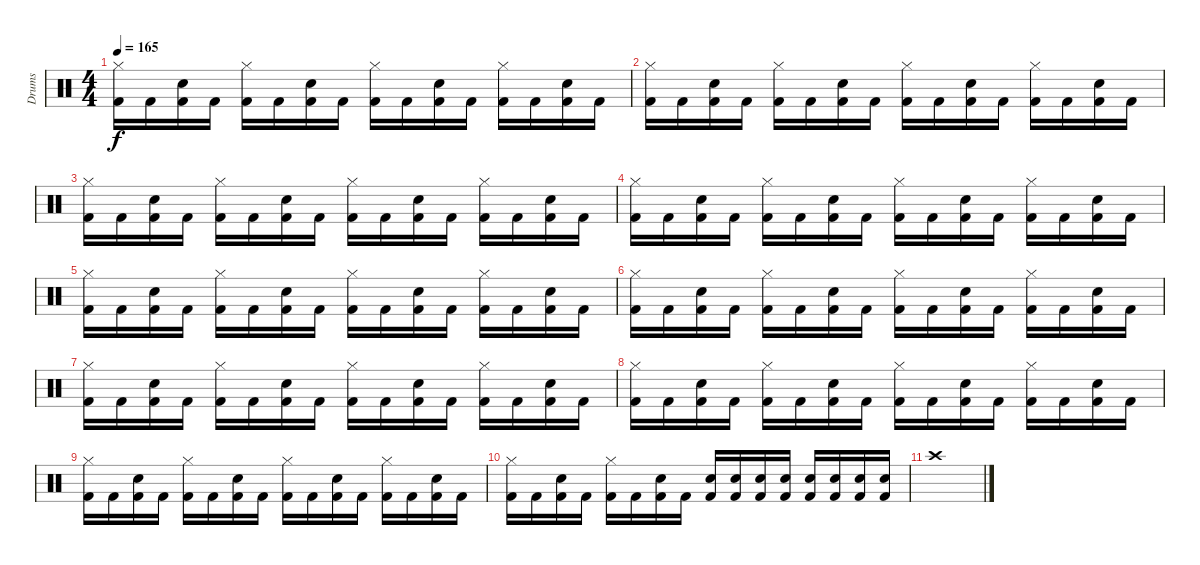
\track ("Drums" "Drums") {instrument percussion}
\staff {score}
\articulation defaults
\ts (4 4)
\tempo 165
\clef neutral
\ks c
("Hi-Hat (closed)" "Kick (hit) 2").16{dy f} "Kick (hit) 2".16 ("Snare (hit) 2" "Kick (hit) 2").16 "Kick (hit) 2".16 ("Hi-Hat (closed)" "Kick (hit) 2").16 "Kick (hit) 2".16 ("Snare (hit) 2" "Kick (hit) 2").16 "Kick (hit) 2".16 ("Hi-Hat (closed)" "Kick (hit) 2").16 "Kick (hit) 2".16 ("Snare (hit) 2" "Kick (hit) 2").16 "Kick (hit) 2".16 ("Hi-Hat (closed)" "Kick (hit) 2").16 "Kick (hit) 2".16 ("Snare (hit) 2" "Kick (hit) 2").16 "Kick (hit) 2".16 |
("Hi-Hat (closed)" "Kick (hit) 2").16 "Kick (hit) 2".16 ("Snare (hit) 2" "Kick (hit) 2").16 "Kick (hit) 2".16 ("Hi-Hat (closed)" "Kick (hit) 2").16 "Kick (hit) 2".16 ("Snare (hit) 2" "Kick (hit) 2").16 "Kick (hit) 2".16 ("Hi-Hat (closed)" "Kick (hit) 2").16 "Kick (hit) 2".16 ("Snare (hit) 2" "Kick (hit) 2").16 "Kick (hit) 2".16 ("Hi-Hat (closed)" "Kick (hit) 2").16 "Kick (hit) 2".16 ("Snare (hit) 2" "Kick (hit) 2").16 "Kick (hit) 2".16 |
("Hi-Hat (closed)" "Kick (hit) 2").16 "Kick (hit) 2".16 ("Snare (hit) 2" "Kick (hit) 2").16 "Kick (hit) 2".16 ("Hi-Hat (closed)" "Kick (hit) 2").16 "Kick (hit) 2".16 ("Snare (hit) 2" "Kick (hit) 2").16 "Kick (hit) 2".16 ("Hi-Hat (closed)" "Kick (hit) 2").16 "Kick (hit) 2".16 ("Snare (hit) 2" "Kick (hit) 2").16 "Kick (hit) 2".16 ("Hi-Hat (closed)" "Kick (hit) 2").16 "Kick (hit) 2".16 ("Snare (hit) 2" "Kick (hit) 2").16 "Kick (hit) 2".16 |
("Hi-Hat (closed)" "Kick (hit) 2").16 "Kick (hit) 2".16 ("Snare (hit) 2" "Kick (hit) 2").16 "Kick (hit) 2".16 ("Hi-Hat (closed)" "Kick (hit) 2").16 "Kick (hit) 2".16 ("Snare (hit) 2" "Kick (hit) 2").16 "Kick (hit) 2".16 ("Hi-Hat (closed)" "Kick (hit) 2").16 "Kick (hit) 2".16 ("Snare (hit) 2" "Kick (hit) 2").16 "Kick (hit) 2".16 ("Hi-Hat (closed)" "Kick (hit) 2").16 "Kick (hit) 2".16 ("Snare (hit) 2" "Kick (hit) 2").16 "Kick (hit) 2".16 |
("Hi-Hat (closed)" "Kick (hit) 2").16 "Kick (hit) 2".16 ("Snare (hit) 2" "Kick (hit) 2").16 "Kick (hit) 2".16 ("Hi-Hat (closed)" "Kick (hit) 2").16 "Kick (hit) 2".16 ("Snare (hit) 2" "Kick (hit) 2").16 "Kick (hit) 2".16 ("Hi-Hat (closed)" "Kick (hit) 2").16 "Kick (hit) 2".16 ("Snare (hit) 2" "Kick (hit) 2").16 "Kick (hit) 2".16 ("Hi-Hat (closed)" "Kick (hit) 2").16 "Kick (hit) 2".16 ("Snare (hit) 2" "Kick (hit) 2").16 "Kick (hit) 2".16 |
("Hi-Hat (closed)" "Kick (hit) 2").16 "Kick (hit) 2".16 ("Snare (hit) 2" "Kick (hit) 2").16 "Kick (hit) 2".16 ("Hi-Hat (closed)" "Kick (hit) 2").16 "Kick (hit) 2".16 ("Snare (hit) 2" "Kick (hit) 2").16 "Kick (hit) 2".16 ("Hi-Hat (closed)" "Kick (hit) 2").16 "Kick (hit) 2".16 ("Snare (hit) 2" "Kick (hit) 2").16 "Kick (hit) 2".16 ("Hi-Hat (closed)" "Kick (hit) 2").16 "Kick (hit) 2".16 ("Snare (hit) 2" "Kick (hit) 2").16 "Kick (hit) 2".16 |
("Hi-Hat (closed)" "Kick (hit) 2").16 "Kick (hit) 2".16 ("Snare (hit) 2" "Kick (hit) 2").16 "Kick (hit) 2".16 ("Hi-Hat (closed)" "Kick (hit) 2").16 "Kick (hit) 2".16 ("Snare (hit) 2" "Kick (hit) 2").16 "Kick (hit) 2".16 ("Hi-Hat (closed)" "Kick (hit) 2").16 "Kick (hit) 2".16 ("Snare (hit) 2" "Kick (hit) 2").16 "Kick (hit) 2".16 ("Hi-Hat (closed)" "Kick (hit) 2").16 "Kick (hit) 2".16 ("Snare (hit) 2" "Kick (hit) 2").16 "Kick (hit) 2".16 |
("Hi-Hat (closed)" "Kick (hit) 2").16 "Kick (hit) 2".16 ("Snare (hit) 2" "Kick (hit) 2").16 "Kick (hit) 2".16 ("Hi-Hat (closed)" "Kick (hit) 2").16 "Kick (hit) 2".16 ("Snare (hit) 2" "Kick (hit) 2").16 "Kick (hit) 2".16 ("Hi-Hat (closed)" "Kick (hit) 2").16 "Kick (hit) 2".16 ("Snare (hit) 2" "Kick (hit) 2").16 "Kick (hit) 2".16 ("Hi-Hat (closed)" "Kick (hit) 2").16 "Kick (hit) 2".16 ("Snare (hit) 2" "Kick (hit) 2").16 "Kick (hit) 2".16 |
("Hi-Hat (closed)" "Kick (hit) 2").16 "Kick (hit) 2".16 ("Snare (hit) 2" "Kick (hit) 2").16 "Kick (hit) 2".16 ("Hi-Hat (closed)" "Kick (hit) 2").16 "Kick (hit) 2".16 ("Snare (hit) 2" "Kick (hit) 2").16 "Kick (hit) 2".16 ("Hi-Hat (closed)" "Kick (hit) 2").16 "Kick (hit) 2".16 ("Snare (hit) 2" "Kick (hit) 2").16 "Kick (hit) 2".16 ("Hi-Hat (closed)" "Kick (hit) 2").16 "Kick (hit) 2".16 ("Snare (hit) 2" "Kick (hit) 2").16 "Kick (hit) 2".16 |
("Hi-Hat (closed)" "Kick (hit) 2").16 "Kick (hit) 2".16 ("Snare (hit) 2" "Kick (hit) 2").16 "Kick (hit) 2".16 ("Hi-Hat (closed)" "Kick (hit) 2").16 "Kick (hit) 2".16 ("Snare (hit) 2" "Kick (hit) 2").16 "Kick (hit) 2".16 ("Snare (hit) 2" "Kick (hit) 2").16 ("Snare (hit) 2" "Kick (hit) 2").16 ("Snare (hit) 2" "Kick (hit) 2").16 ("Snare (hit) 2" "Kick (hit) 2").16 ("Snare (hit) 2" "Kick (hit) 2").16 ("Snare (hit) 2" "Kick (hit) 2").16 ("Snare (hit) 2" "Kick (hit) 2").16 ("Snare (hit) 2" "Kick (hit) 2").16 |
"Crash high (hit)".1
